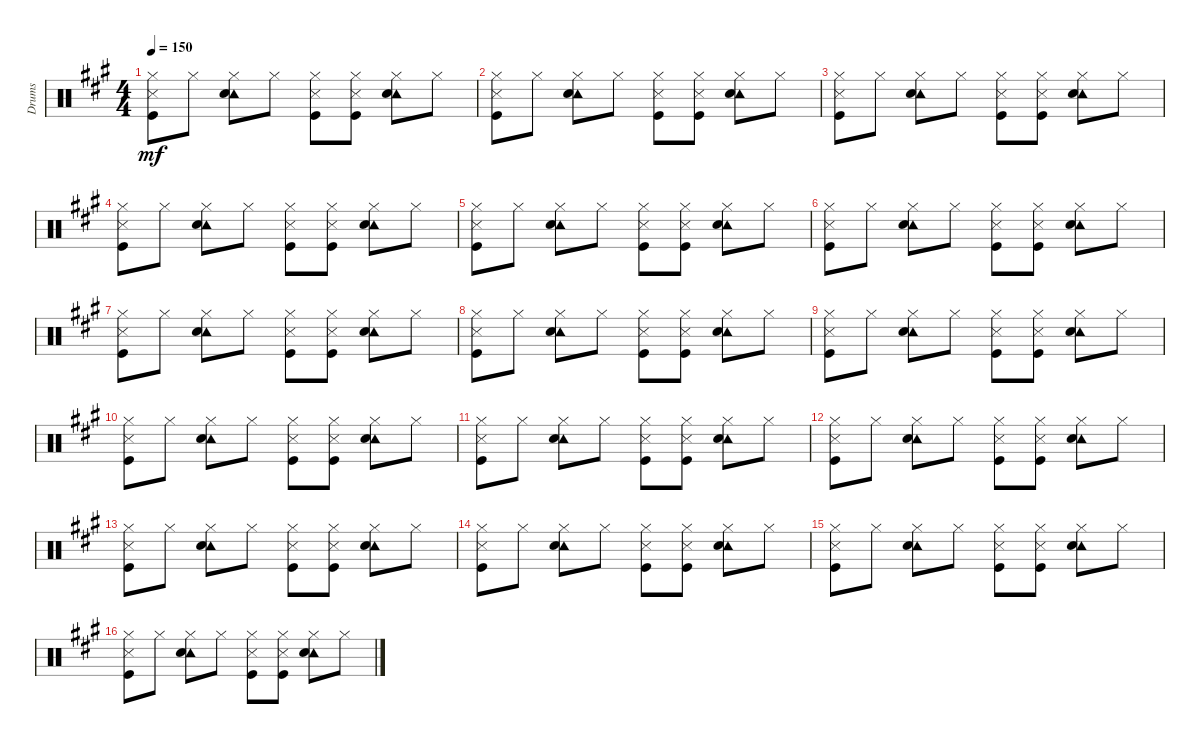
\track ("Drums" "Drums") {instrument percussion}
\staff {score}
\articulation defaults
\ts (4 4)
\tempo 150
\clef neutral
\ks a
("Hi-Hat (closed)" "Metronome (hit)" "Kick (hit)").8{dy mf} "Hi-Hat (closed)".8 ("Tambourine (hit)" "Hi-Hat (closed)" "Electric Snare (hit)").8 "Hi-Hat (closed)".8 ("Hi-Hat (closed)" "Metronome (hit)" "Kick (hit)").8 ("Hi-Hat (closed)" "Metronome (hit)" "Kick (hit)").8 ("Tambourine (hit)" "Hi-Hat (closed)" "Electric Snare (hit)").8 "Hi-Hat (closed)".8 |
("Hi-Hat (closed)" "Metronome (hit)" "Kick (hit)").8 "Hi-Hat (closed)".8 ("Tambourine (hit)" "Hi-Hat (closed)" "Electric Snare (hit)").8 "Hi-Hat (closed)".8 ("Hi-Hat (closed)" "Metronome (hit)" "Kick (hit)").8 ("Hi-Hat (closed)" "Metronome (hit)" "Kick (hit)").8 ("Tambourine (hit)" "Hi-Hat (closed)" "Electric Snare (hit)").8 "Hi-Hat (closed)".8 |
("Hi-Hat (closed)" "Metronome (hit)" "Kick (hit)").8 "Hi-Hat (closed)".8 ("Tambourine (hit)" "Hi-Hat (closed)" "Electric Snare (hit)").8 "Hi-Hat (closed)".8 ("Hi-Hat (closed)" "Metronome (hit)" "Kick (hit)").8 ("Hi-Hat (closed)" "Metronome (hit)" "Kick (hit)").8 ("Tambourine (hit)" "Hi-Hat (closed)" "Electric Snare (hit)").8 "Hi-Hat (closed)".8 |
("Hi-Hat (closed)" "Metronome (hit)" "Kick (hit)").8 "Hi-Hat (closed)".8 ("Tambourine (hit)" "Hi-Hat (closed)" "Electric Snare (hit)").8 "Hi-Hat (closed)".8 ("Hi-Hat (closed)" "Metronome (hit)" "Kick (hit)").8 ("Hi-Hat (closed)" "Metronome (hit)" "Kick (hit)").8 ("Tambourine (hit)" "Hi-Hat (closed)" "Electric Snare (hit)").8 "Hi-Hat (closed)".8 |
("Hi-Hat (closed)" "Metronome (hit)" "Kick (hit)").8 "Hi-Hat (closed)".8 ("Tambourine (hit)" "Hi-Hat (closed)" "Electric Snare (hit)").8 "Hi-Hat (closed)".8 ("Hi-Hat (closed)" "Metronome (hit)" "Kick (hit)").8 ("Hi-Hat (closed)" "Metronome (hit)" "Kick (hit)").8 ("Tambourine (hit)" "Hi-Hat (closed)" "Electric Snare (hit)").8 "Hi-Hat (closed)".8 |
("Hi-Hat (closed)" "Metronome (hit)" "Kick (hit)").8 "Hi-Hat (closed)".8 ("Tambourine (hit)" "Hi-Hat (closed)" "Electric Snare (hit)").8 "Hi-Hat (closed)".8 ("Hi-Hat (closed)" "Metronome (hit)" "Kick (hit)").8 ("Hi-Hat (closed)" "Metronome (hit)" "Kick (hit)").8 ("Tambourine (hit)" "Hi-Hat (closed)" "Electric Snare (hit)").8 "Hi-Hat (closed)".8 |
("Hi-Hat (closed)" "Metronome (hit)" "Kick (hit)").8 "Hi-Hat (closed)".8 ("Tambourine (hit)" "Hi-Hat (closed)" "Electric Snare (hit)").8 "Hi-Hat (closed)".8 ("Hi-Hat (closed)" "Metronome (hit)" "Kick (hit)").8 ("Hi-Hat (closed)" "Metronome (hit)" "Kick (hit)").8 ("Tambourine (hit)" "Hi-Hat (closed)" "Electric Snare (hit)").8 "Hi-Hat (closed)".8 |
("Hi-Hat (closed)" "Metronome (hit)" "Kick (hit)").8 "Hi-Hat (closed)".8 ("Tambourine (hit)" "Hi-Hat (closed)" "Electric Snare (hit)").8 "Hi-Hat (closed)".8 ("Hi-Hat (closed)" "Metronome (hit)" "Kick (hit)").8 ("Hi-Hat (closed)" "Metronome (hit)" "Kick (hit)").8 ("Tambourine (hit)" "Hi-Hat (closed)" "Electric Snare (hit)").8 "Hi-Hat (closed)".8 |
("Hi-Hat (closed)" "Metronome (hit)" "Kick (hit)").8 "Hi-Hat (closed)".8 ("Tambourine (hit)" "Hi-Hat (closed)" "Electric Snare (hit)").8 "Hi-Hat (closed)".8 ("Hi-Hat (closed)" "Metronome (hit)" "Kick (hit)").8 ("Hi-Hat (closed)" "Metronome (hit)" "Kick (hit)").8 ("Tambourine (hit)" "Hi-Hat (closed)" "Electric Snare (hit)").8 "Hi-Hat (closed)".8 |
("Hi-Hat (closed)" "Metronome (hit)" "Kick (hit)").8 "Hi-Hat (closed)".8 ("Tambourine (hit)" "Hi-Hat (closed)" "Electric Snare (hit)").8 "Hi-Hat (closed)".8 ("Hi-Hat (closed)" "Metronome (hit)" "Kick (hit)").8 ("Hi-Hat (closed)" "Metronome (hit)" "Kick (hit)").8 ("Tambourine (hit)" "Hi-Hat (closed)" "Electric Snare (hit)").8 "Hi-Hat (closed)".8 |
("Hi-Hat (closed)" "Metronome (hit)" "Kick (hit)").8 "Hi-Hat (closed)".8 ("Tambourine (hit)" "Hi-Hat (closed)" "Electric Snare (hit)").8 "Hi-Hat (closed)".8 ("Hi-Hat (closed)" "Metronome (hit)" "Kick (hit)").8 ("Hi-Hat (closed)" "Metronome (hit)" "Kick (hit)").8 ("Tambourine (hit)" "Hi-Hat (closed)" "Electric Snare (hit)").8 "Hi-Hat (closed)".8 |
("Hi-Hat (closed)" "Metronome (hit)" "Kick (hit)").8 "Hi-Hat (closed)".8 ("Tambourine (hit)" "Hi-Hat (closed)" "Electric Snare (hit)").8 "Hi-Hat (closed)".8 ("Hi-Hat (closed)" "Metronome (hit)" "Kick (hit)").8 ("Hi-Hat (closed)" "Metronome (hit)" "Kick (hit)").8 ("Tambourine (hit)" "Hi-Hat (closed)" "Electric Snare (hit)").8 "Hi-Hat (closed)".8 |
("Hi-Hat (closed)" "Metronome (hit)" "Kick (hit)").8 "Hi-Hat (closed)".8 ("Tambourine (hit)" "Hi-Hat (closed)" "Electric Snare (hit)").8 "Hi-Hat (closed)".8 ("Hi-Hat (closed)" "Metronome (hit)" "Kick (hit)").8 ("Hi-Hat (closed)" "Metronome (hit)" "Kick (hit)").8 ("Tambourine (hit)" "Hi-Hat (closed)" "Electric Snare (hit)").8 "Hi-Hat (closed)".8 |
("Hi-Hat (closed)" "Metronome (hit)" "Kick (hit)").8 "Hi-Hat (closed)".8 ("Tambourine (hit)" "Hi-Hat (closed)" "Electric Snare (hit)").8 "Hi-Hat (closed)".8 ("Hi-Hat (closed)" "Metronome (hit)" "Kick (hit)").8 ("Hi-Hat (closed)" "Metronome (hit)" "Kick (hit)").8 ("Tambourine (hit)" "Hi-Hat (closed)" "Electric Snare (hit)").8 "Hi-Hat (closed)".8 |
("Hi-Hat (closed)" "Metronome (hit)" "Kick (hit)").8 "Hi-Hat (closed)".8 ("Tambourine (hit)" "Hi-Hat (closed)" "Electric Snare (hit)").8 "Hi-Hat (closed)".8 ("Hi-Hat (closed)" "Metronome (hit)" "Kick (hit)").8 ("Hi-Hat (closed)" "Metronome (hit)" "Kick (hit)").8 ("Tambourine (hit)" "Hi-Hat (closed)" "Electric Snare (hit)").8 "Hi-Hat (closed)".8 |
("Hi-Hat (closed)" "Metronome (hit)" "Kick (hit)").8 "Hi-Hat (closed)".8 ("Tambourine (hit)" "Hi-Hat (closed)" "Electric Snare (hit)").8 "Hi-Hat (closed)".8 ("Hi-Hat (closed)" "Metronome (hit)" "Kick (hit)").8 ("Hi-Hat (closed)" "Metronome (hit)" "Kick (hit)").8 ("Tambourine (hit)" "Hi-Hat (closed)" "Electric Snare (hit)").8 "Hi-Hat (closed)".8
